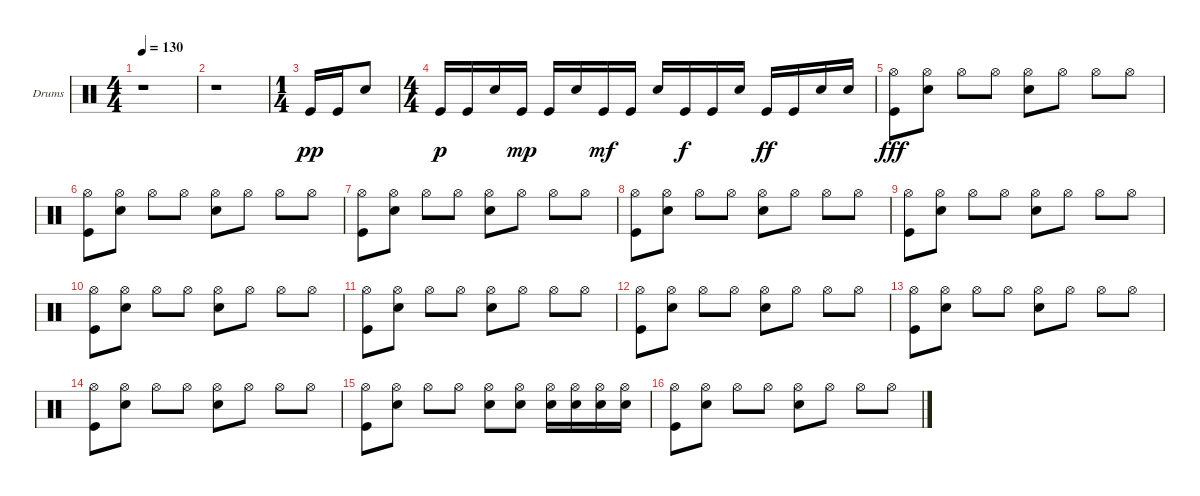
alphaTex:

\bracketExtendMode groupsimilarinstruments
\firstSystemTrackNameOrientation horizontal
\otherSystemsTrackNameOrientation horizontal
\track ("Drumkit" "Drums") {instrument percussion}
\staff {score}
\articulation defaults
\ts (4 4)
\tempo 130
\clef neutral
\ks c
r.1{dy fff} |
r.1 |
\ts (1 4)
"Kick (hit)".16{dy pp} "Kick (hit)".16 "Snare (hit) 2".8 |
\ts (4 4)
"Kick (hit)".16{dy p} "Kick (hit)".16 "Snare (hit) 2".16 "Kick (hit)".16{dy mp} "Kick (hit)".16 "Snare (hit) 2".16 "Kick (hit)".16{dy mf} "Kick (hit)".16 "Snare (hit) 2".16 "Kick (hit)".16{dy f} "Kick (hit)".16 "Snare (hit) 2".16 "Kick (hit)".16{dy ff} "Kick (hit)".16 "Snare (hit) 2".16 "Snare (hit) 2".16 |
("Hi-Hat (open)" "Kick (hit)").8{dy fff} ("Hi-Hat (open)" "Snare (hit) 2").8 "Hi-Hat (open)".8 "Hi-Hat (open)".8 ("Hi-Hat (open)" "Snare (hit) 2").8 "Hi-Hat (open)".8 "Hi-Hat (open)".8 "Hi-Hat (open)".8 |
("Hi-Hat (open)" "Kick (hit)").8 ("Hi-Hat (open)" "Snare (hit) 2").8 "Hi-Hat (open)".8 "Hi-Hat (open)".8 ("Hi-Hat (open)" "Snare (hit) 2").8 "Hi-Hat (open)".8 "Hi-Hat (open)".8 "Hi-Hat (open)".8 |
("Hi-Hat (open)" "Kick (hit)").8 ("Hi-Hat (open)" "Snare (hit) 2").8 "Hi-Hat (open)".8 "Hi-Hat (open)".8 ("Hi-Hat (open)" "Snare (hit) 2").8 "Hi-Hat (open)".8 "Hi-Hat (open)".8 "Hi-Hat (open)".8 |
("Hi-Hat (open)" "Kick (hit)").8 ("Hi-Hat (open)" "Snare (hit) 2").8 "Hi-Hat (open)".8 "Hi-Hat (open)".8 ("Hi-Hat (open)" "Snare (hit) 2").8 "Hi-Hat (open)".8 "Hi-Hat (open)".8 "Hi-Hat (open)".8 |
("Hi-Hat (open)" "Kick (hit)").8 ("Hi-Hat (open)" "Snare (hit) 2").8 "Hi-Hat (open)".8 "Hi-Hat (open)".8 ("Hi-Hat (open)" "Snare (hit) 2").8 "Hi-Hat (open)".8 "Hi-Hat (open)".8 "Hi-Hat (open)".8 |
("Hi-Hat (open)" "Kick (hit)").8 ("Hi-Hat (open)" "Snare (hit) 2").8 "Hi-Hat (open)".8 "Hi-Hat (open)".8 ("Hi-Hat (open)" "Snare (hit) 2").8 "Hi-Hat (open)".8 "Hi-Hat (open)".8 "Hi-Hat (open)".8 |
("Hi-Hat (open)" "Kick (hit)").8 ("Hi-Hat (open)" "Snare (hit) 2").8 "Hi-Hat (open)".8 "Hi-Hat (open)".8 ("Hi-Hat (open)" "Snare (hit) 2").8 "Hi-Hat (open)".8 "Hi-Hat (open)".8 "Hi-Hat (open)".8 |
("Hi-Hat (open)" "Kick (hit)").8 ("Hi-Hat (open)" "Snare (hit) 2").8 "Hi-Hat (open)".8 "Hi-Hat (open)".8 ("Hi-Hat (open)" "Snare (hit) 2").8 "Hi-Hat (open)".8 "Hi-Hat (open)".8 "Hi-Hat (open)".8 |
("Hi-Hat (open)" "Kick (hit)").8 ("Hi-Hat (open)" "Snare (hit) 2").8 "Hi-Hat (open)".8 "Hi-Hat (open)".8 ("Hi-Hat (open)" "Snare (hit) 2").8 "Hi-Hat (open)".8 "Hi-Hat (open)".8 "Hi-Hat (open)".8 |
("Hi-Hat (open)" "Kick (hit)").8 ("Hi-Hat (open)" "Snare (hit) 2").8 "Hi-Hat (open)".8 "Hi-Hat (open)".8 ("Hi-Hat (open)" "Snare (hit) 2").8 "Hi-Hat (open)".8 "Hi-Hat (open)".8 "Hi-Hat (open)".8 |
("Hi-Hat (open)" "Kick (hit)").8 ("Hi-Hat (open)" "Snare (hit) 2").8 "Hi-Hat (open)".8 "Hi-Hat (open)".8 ("Hi-Hat (open)" "Snare (hit) 2").8 ("Hi-Hat (open)" "Snare (hit) 2").8 ("Hi-Hat (open)" "Snare (hit) 2").16 ("Hi-Hat (open)" "Snare (hit) 2").16 ("Hi-Hat (open)" "Snare (hit) 2").16 ("Hi-Hat (open)" "Snare (hit) 2").16 |
("Hi-Hat (open)" "Kick (hit)").8 ("Hi-Hat (open)" "Snare (hit) 2").8 "Hi-Hat (open)".8 "Hi-Hat (open)".8 ("Hi-Hat (open)" "Snare (hit) 2").8 "Hi-Hat (open)".8 "Hi-Hat (open)".8 "Hi-Hat (open)".8
